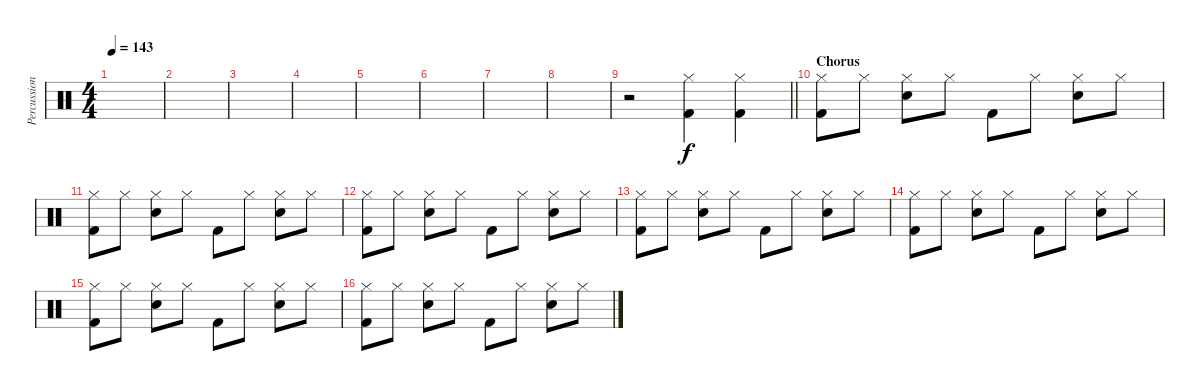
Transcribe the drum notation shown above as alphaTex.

\track ("Percussion" "Percussion") {instrument percussion}
\staff {score}
\articulation defaults
\ts (4 4)
\tempo 143
\clef neutral
\ks c
|
|
|
|
|
|
|
|
\barLineRight lightlight
r.2 ("Hi-Hat (closed)" "Kick (hit) 2").4 ("Hi-Hat (closed)" "Kick (hit) 2").4 |
\section ("" "Chorus")
("Hi-Hat (closed)" "Kick (hit) 2").8 "Hi-Hat (closed)".8 ("Hi-Hat (closed)" "Electric Snare (hit)").8 "Hi-Hat (closed)".8 "Kick (hit) 2".8 "Hi-Hat (closed)".8 ("Hi-Hat (closed)" "Electric Snare (hit)").8 "Hi-Hat (closed)".8 |
("Hi-Hat (closed)" "Kick (hit) 2").8 "Hi-Hat (closed)".8 ("Hi-Hat (closed)" "Electric Snare (hit)").8 "Hi-Hat (closed)".8 "Kick (hit) 2".8 "Hi-Hat (closed)".8 ("Hi-Hat (closed)" "Electric Snare (hit)").8 "Hi-Hat (closed)".8 |
("Hi-Hat (closed)" "Kick (hit) 2").8 "Hi-Hat (closed)".8 ("Hi-Hat (closed)" "Electric Snare (hit)").8 "Hi-Hat (closed)".8 "Kick (hit) 2".8 "Hi-Hat (closed)".8 ("Hi-Hat (closed)" "Electric Snare (hit)").8 "Hi-Hat (closed)".8 |
("Hi-Hat (closed)" "Kick (hit) 2").8 "Hi-Hat (closed)".8 ("Hi-Hat (closed)" "Electric Snare (hit)").8 "Hi-Hat (closed)".8 "Kick (hit) 2".8 "Hi-Hat (closed)".8 ("Hi-Hat (closed)" "Electric Snare (hit)").8 "Hi-Hat (closed)".8 |
("Hi-Hat (closed)" "Kick (hit) 2").8 "Hi-Hat (closed)".8 ("Hi-Hat (closed)" "Electric Snare (hit)").8 "Hi-Hat (closed)".8 "Kick (hit) 2".8 "Hi-Hat (closed)".8 ("Hi-Hat (closed)" "Electric Snare (hit)").8 "Hi-Hat (closed)".8 |
("Hi-Hat (closed)" "Kick (hit) 2").8 "Hi-Hat (closed)".8 ("Hi-Hat (closed)" "Electric Snare (hit)").8 "Hi-Hat (closed)".8 "Kick (hit) 2".8 "Hi-Hat (closed)".8 ("Hi-Hat (closed)" "Electric Snare (hit)").8 "Hi-Hat (closed)".8 |
("Hi-Hat (closed)" "Kick (hit) 2").8 "Hi-Hat (closed)".8 ("Hi-Hat (closed)" "Electric Snare (hit)").8 "Hi-Hat (closed)".8 "Kick (hit) 2".8 "Hi-Hat (closed)".8 ("Hi-Hat (closed)" "Electric Snare (hit)").8 "Hi-Hat (closed)".8
